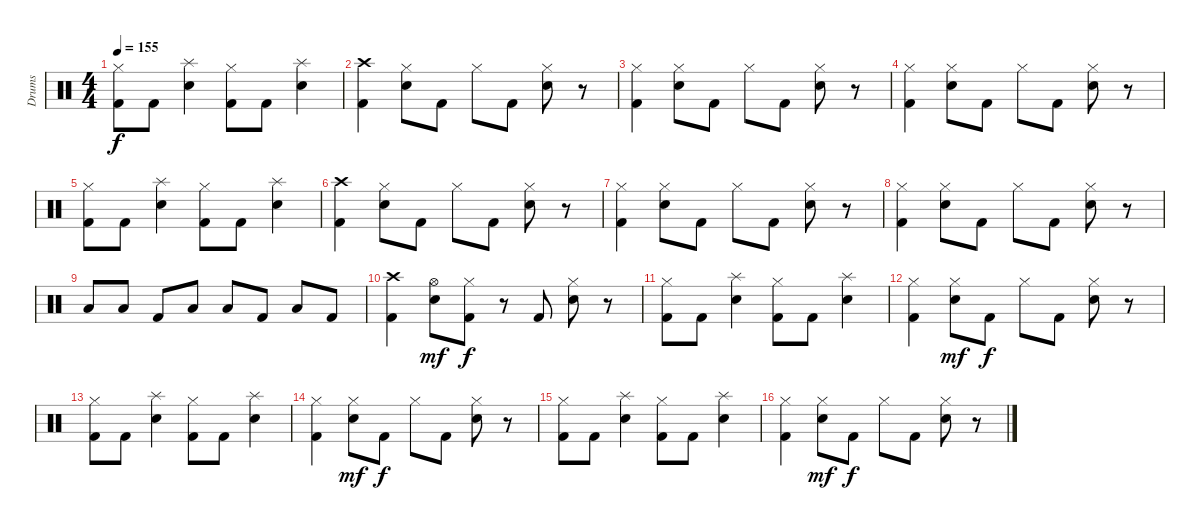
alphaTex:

\track ("Drums" "Drums") {instrument percussion}
\staff {score}
\articulation defaults
\ts (4 4)
\tempo 155
\clef neutral
\ks c
("Hi-Hat (closed)" "Kick (hit) 2").8{dy f} "Kick (hit) 2".8 ("Splash (hit)" "Snare (hit) 2").4 ("Hi-Hat (closed)" "Kick (hit) 2").8 "Kick (hit) 2".8 ("Splash (hit)" "Snare (hit) 2").4 |
("Crash high (hit)" "Kick (hit) 2").4 ("Hi-Hat (closed)" "Snare (hit) 2").8 "Kick (hit) 2".8 "Hi-Hat (closed)".8 "Kick (hit) 2".8 ("Hi-Hat (closed)" "Snare (hit) 2").8 r.8 |
("Hi-Hat (closed)" "Kick (hit) 2").4 ("Hi-Hat (closed)" "Snare (hit) 2").8 "Kick (hit) 2".8 "Hi-Hat (closed)".8 "Kick (hit) 2".8 ("Hi-Hat (closed)" "Snare (hit) 2").8 r.8 |
("Hi-Hat (closed)" "Kick (hit) 2").4 ("Hi-Hat (closed)" "Snare (hit) 2").8 "Kick (hit) 2".8 "Hi-Hat (closed)".8 "Kick (hit) 2".8 ("Hi-Hat (closed)" "Snare (hit) 2").8 r.8 |
("Hi-Hat (closed)" "Kick (hit) 2").8 "Kick (hit) 2".8 ("Splash (hit)" "Snare (hit) 2").4 ("Hi-Hat (closed)" "Kick (hit) 2").8 "Kick (hit) 2".8 ("Splash (hit)" "Snare (hit) 2").4 |
("Crash high (hit)" "Kick (hit) 2").4 ("Hi-Hat (closed)" "Snare (hit) 2").8 "Kick (hit) 2".8 "Hi-Hat (closed)".8 "Kick (hit) 2".8 ("Hi-Hat (closed)" "Snare (hit) 2").8 r.8 |
("Hi-Hat (closed)" "Kick (hit) 2").4 ("Hi-Hat (closed)" "Snare (hit) 2").8 "Kick (hit) 2".8 "Hi-Hat (closed)".8 "Kick (hit) 2".8 ("Hi-Hat (closed)" "Snare (hit) 2").8 r.8 |
("Hi-Hat (closed)" "Kick (hit) 2").4 ("Hi-Hat (closed)" "Snare (hit) 2").8 "Kick (hit) 2".8 "Hi-Hat (closed)".8 "Kick (hit) 2".8 ("Hi-Hat (closed)" "Snare (hit) 2").8 r.8 |
"Low Tom (hit)".8 "Low Tom (hit)".8 "Kick (hit) 2".8 "Low Tom (hit)".8 "Low Tom (hit)".8 "Kick (hit) 2".8 "Low Tom (hit)".8 "Kick (hit) 2".8 |
("Crash high (hit)" "Kick (hit) 2").4 ("Hi-Hat (open)" "Snare (hit) 2").8{dy mf} ("Hi-Hat (closed)" "Kick (hit) 2").8{dy f} r.8 "Kick (hit) 2".8 ("Hi-Hat (closed)" "Snare (hit) 2").8 r.8 |
("Hi-Hat (closed)" "Kick (hit) 2").8 "Kick (hit) 2".8 ("Splash (hit)" "Snare (hit) 2").4 ("Hi-Hat (closed)" "Kick (hit) 2").8 "Kick (hit) 2".8 ("Splash (hit)" "Snare (hit) 2").4 |
("Hi-Hat (closed)" "Kick (hit) 2").4 ("Hi-Hat (closed)" "Snare (hit) 2").8{dy mf} "Kick (hit) 2".8{dy f} "Hi-Hat (closed)".8 "Kick (hit) 2".8 ("Hi-Hat (closed)" "Snare (hit) 2").8 r.8 |
("Hi-Hat (closed)" "Kick (hit) 2").8 "Kick (hit) 2".8 ("Splash (hit)" "Snare (hit) 2").4 ("Hi-Hat (closed)" "Kick (hit) 2").8 "Kick (hit) 2".8 ("Splash (hit)" "Snare (hit) 2").4 |
("Hi-Hat (closed)" "Kick (hit) 2").4 ("Hi-Hat (closed)" "Snare (hit) 2").8{dy mf} "Kick (hit) 2".8{dy f} "Hi-Hat (closed)".8 "Kick (hit) 2".8 ("Hi-Hat (closed)" "Snare (hit) 2").8 r.8 |
("Hi-Hat (closed)" "Kick (hit) 2").8 "Kick (hit) 2".8 ("Splash (hit)" "Snare (hit) 2").4 ("Hi-Hat (closed)" "Kick (hit) 2").8 "Kick (hit) 2".8 ("Splash (hit)" "Snare (hit) 2").4 |
("Hi-Hat (closed)" "Kick (hit) 2").4 ("Hi-Hat (closed)" "Snare (hit) 2").8{dy mf} "Kick (hit) 2".8{dy f} "Hi-Hat (closed)".8 "Kick (hit) 2".8 ("Hi-Hat (closed)" "Snare (hit) 2").8 r.8
